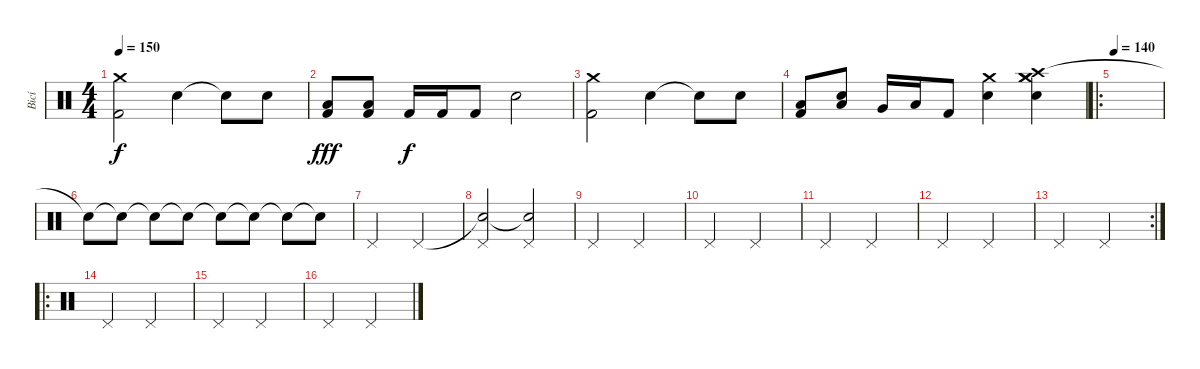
\track ("Bicí" "Bicí") {instrument percussion}
\staff {score}
\articulation defaults
\ts (4 4)
\tempo 150
\clef neutral
\ks c
("Crash medium (hit)" "Kick (hit) 2").2{dy f volume 16} "Electric Snare (hit)".4 "Snare (hit)"{t}.8 "Electric Snare (hit)".8 |
("Kick (hit) 2" "Low Floor Tom (hit)").8{dy fff} ("Kick (hit) 2" "Low Floor Tom (hit)").8 "Kick (hit) 2".16{dy f} "Kick (hit) 2".16 "Kick (hit) 2".8 "Electric Snare (hit)".2 |
("Crash medium (hit)" "Kick (hit) 2").2 "Electric Snare (hit)".4 "Snare (hit)"{t}.8 "Electric Snare (hit)".8 |
("Low Floor Tom (hit)" "Kick (hit) 2").8 ("Low Floor Tom (hit)" "Electric Snare (hit)").8 "Very Low Tom (hit)".16 "Low Floor Tom (hit)".16 "Kick (hit) 2".8 ("Crash medium (hit)" "Electric Snare (hit)").4 ("Crash high (hit)" "Crash medium (hit)" "Crash medium (hit)" "Electric Snare (hit)").4 |
\ro
\tempo 145
\tempo 140
|
"Snare (hit)"{t}.8 "Snare (hit)"{t}.8 "Snare (hit)"{t}.8 "Snare (hit)"{t}.8 "Snare (hit)"{t}.8 "Snare (hit)"{t}.8 "Snare (hit)"{t}.8 "Snare (hit)"{t}.8 |
"Pedal Hi-Hat (hit)".2 "Pedal Hi-Hat (hit)".2 |
("Snare (hit)"{t} "Pedal Hi-Hat (hit)").2 ("Snare (hit)"{t} "Pedal Hi-Hat (hit)").2 |
"Pedal Hi-Hat (hit)".2 "Pedal Hi-Hat (hit)".2 |
"Pedal Hi-Hat (hit)".2 "Pedal Hi-Hat (hit)".2 |
"Pedal Hi-Hat (hit)".2 "Pedal Hi-Hat (hit)".2 |
"Pedal Hi-Hat (hit)".2 "Pedal Hi-Hat (hit)".2 |
\rc 2 "Pedal Hi-Hat (hit)".2 "Pedal Hi-Hat (hit)".2
|
\ro "Pedal Hi-Hat (hit)".2 "Pedal Hi-Hat (hit)".2
|
"Pedal Hi-Hat (hit)".2 "Pedal Hi-Hat (hit)".2 |
"Pedal Hi-Hat (hit)".2 "Pedal Hi-Hat (hit)".2
